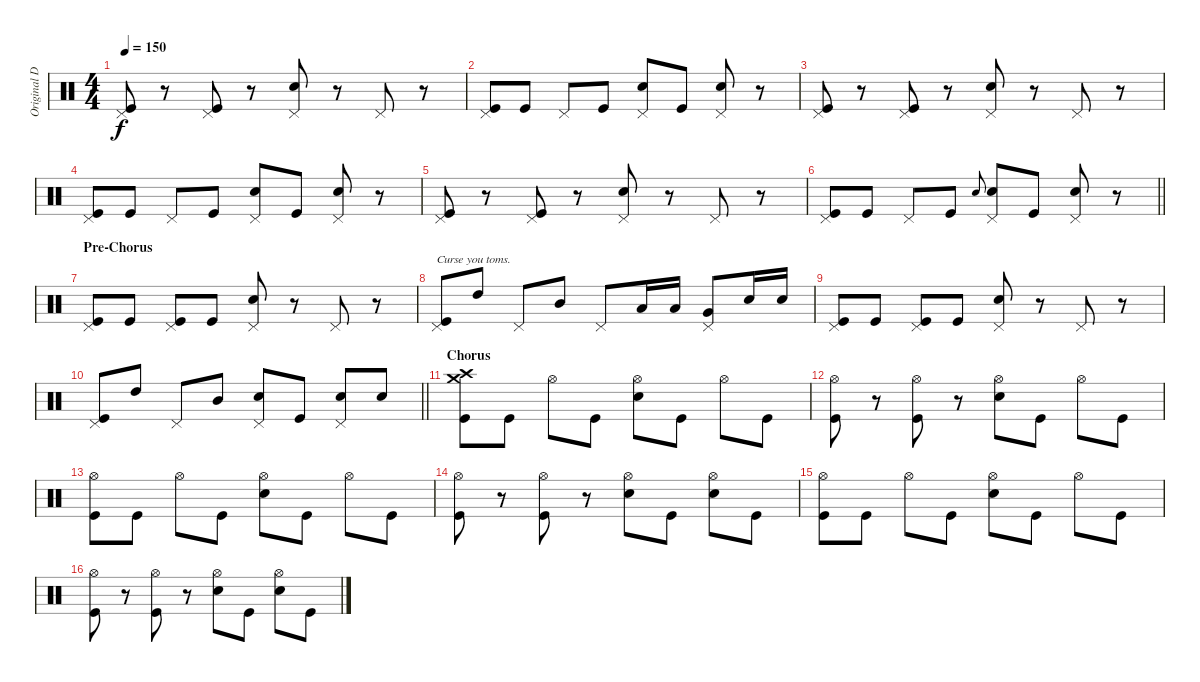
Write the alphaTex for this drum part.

\track ("Original Drums" "Original D") {instrument percussion}
\staff {score}
\articulation defaults
\ts (4 4)
\tempo 150
\clef neutral
\ks c
("Pedal Hi-Hat (hit)" "Kick (hit)").8{dy f} r.8 ("Pedal Hi-Hat (hit)" "Kick (hit)").8 r.8 ("Pedal Hi-Hat (hit)" "Snare (hit) 2").8 r.8 "Pedal Hi-Hat (hit)".8 r.8 |
("Pedal Hi-Hat (hit)" "Kick (hit)").8 "Kick (hit)".8 "Pedal Hi-Hat (hit)".8 "Kick (hit)".8 ("Pedal Hi-Hat (hit)" "Snare (hit) 2").8 "Kick (hit)".8 ("Pedal Hi-Hat (hit)" "Snare (hit) 2").8 r.8 |
("Pedal Hi-Hat (hit)" "Kick (hit)").8 r.8 ("Pedal Hi-Hat (hit)" "Kick (hit)").8 r.8 ("Pedal Hi-Hat (hit)" "Snare (hit) 2").8 r.8 "Pedal Hi-Hat (hit)".8 r.8 |
("Pedal Hi-Hat (hit)" "Kick (hit)").8 "Kick (hit)".8 "Pedal Hi-Hat (hit)".8 "Kick (hit)".8 ("Pedal Hi-Hat (hit)" "Snare (hit) 2").8 "Kick (hit)".8 ("Pedal Hi-Hat (hit)" "Snare (hit) 2").8 r.8 |
("Pedal Hi-Hat (hit)" "Kick (hit)").8 r.8 ("Pedal Hi-Hat (hit)" "Kick (hit)").8 r.8 ("Pedal Hi-Hat (hit)" "Snare (hit) 2").8 r.8 "Pedal Hi-Hat (hit)".8 r.8 |
\barLineRight lightlight
("Pedal Hi-Hat (hit)" "Kick (hit)").8 "Kick (hit)".8 "Pedal Hi-Hat (hit)".8 "Kick (hit)".8 "Snare (hit) 2".8{gr onbeat} ("Pedal Hi-Hat (hit)" "Snare (hit) 2").8 "Kick (hit)".8 ("Pedal Hi-Hat (hit)" "Snare (hit) 2").8 r.8 |
\section ("" "Pre-Chorus")
("Pedal Hi-Hat (hit)" "Kick (hit)").8 "Kick (hit)".8 ("Pedal Hi-Hat (hit)" "Kick (hit)").8 "Kick (hit)".8 ("Pedal Hi-Hat (hit)" "Snare (hit) 2").8 r.8 "Pedal Hi-Hat (hit)".8 r.8 |
("Pedal Hi-Hat (hit)" "Kick (hit)").8{txt "Curse you toms."} "High Tom (hit)".8 "Pedal Hi-Hat (hit)".8 "Mid Tom (hit)".8 "Pedal Hi-Hat (hit)".8 "Low Tom (hit)".16 "Low Tom (hit)".16 ("Pedal Hi-Hat (hit)" "Very Low Tom (hit)").8 "Snare (hit) 2".16 "Snare (hit) 2".16 |
("Pedal Hi-Hat (hit)" "Kick (hit)").8 "Kick (hit)".8 ("Pedal Hi-Hat (hit)" "Kick (hit)").8 "Kick (hit)".8 ("Pedal Hi-Hat (hit)" "Snare (hit) 2").8 r.8 "Pedal Hi-Hat (hit)".8 r.8 |
\barLineRight lightlight
("Pedal Hi-Hat (hit)" "Kick (hit)").8 "High Tom (hit)".8 "Pedal Hi-Hat (hit)".8 "Mid Tom (hit)".8 ("Pedal Hi-Hat (hit)" "Snare (hit) 2").8 "Kick (hit)".8 ("Pedal Hi-Hat (hit)" "Snare (hit) 2").8 "Snare (hit) 2".8 |
\section ("" "Chorus")
("Crash high (hit)" "Crash medium (hit)" "Kick (hit)").8 "Kick (hit)".8 "Hi-Hat (open)".8 "Kick (hit)".8 ("Hi-Hat (open)" "Snare (hit) 2").8 "Kick (hit)".8 "Hi-Hat (open)".8 "Kick (hit)".8 |
("Hi-Hat (open)" "Kick (hit)").8 r.8 ("Hi-Hat (open)" "Kick (hit)").8 r.8 ("Hi-Hat (open)" "Snare (hit) 2").8 "Kick (hit)".8 "Hi-Hat (open)".8 "Kick (hit)".8 |
("Hi-Hat (open)" "Kick (hit)").8 "Kick (hit)".8 "Hi-Hat (open)".8 "Kick (hit)".8 ("Hi-Hat (open)" "Snare (hit) 2").8 "Kick (hit)".8 "Hi-Hat (open)".8 "Kick (hit)".8 |
("Hi-Hat (open)" "Kick (hit)").8 r.8 ("Hi-Hat (open)" "Kick (hit)").8 r.8 ("Hi-Hat (open)" "Snare (hit) 2").8 "Kick (hit)".8 ("Hi-Hat (open)" "Snare (hit) 2").8 "Kick (hit)".8 |
("Hi-Hat (open)" "Kick (hit)").8 "Kick (hit)".8 "Hi-Hat (open)".8 "Kick (hit)".8 ("Hi-Hat (open)" "Snare (hit) 2").8 "Kick (hit)".8 "Hi-Hat (open)".8 "Kick (hit)".8 |
("Hi-Hat (open)" "Kick (hit)").8 r.8 ("Hi-Hat (open)" "Kick (hit)").8 r.8 ("Hi-Hat (open)" "Snare (hit) 2").8 "Kick (hit)".8 ("Hi-Hat (open)" "Snare (hit) 2").8 "Kick (hit)".8
